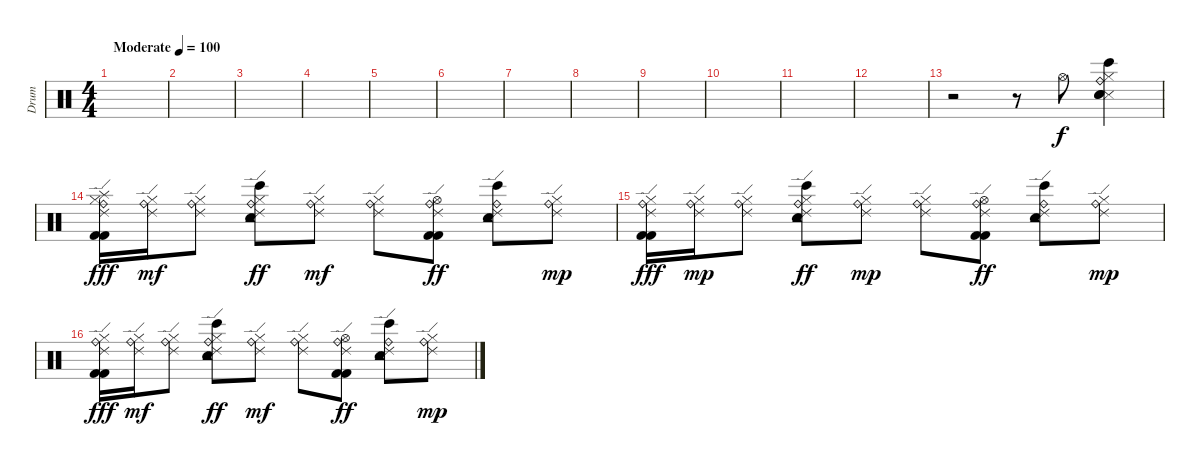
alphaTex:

\track ("Drum" "Drum") {instrument percussion}
\staff {score}
\articulation defaults
\ts (4 4)
\tempo (100 "Moderate")
\clef neutral
\ks c
|
|
|
|
|
|
|
|
|
|
|
|
r.2{volume 11} r.8 "Hi-Hat (open)".8 ("Ride (bell)" "Snare (side stick) 3" "Bongo High (hit)" "Electric Snare (hit)" "Hi-Hat (closed)" "Snare (hit) 2").4 |
("Splash (hit)" "Ride (bell)" "Ride (edge) 2" "Hi-Hat (closed)" "Kick (hit) 2" "Kick (hit) 2").16{dy fff} ("Ride (bell)" "Ride (edge) 2" "Hi-Hat (closed)").16{dy mf} ("Ride (bell)" "Ride (edge) 2" "Hi-Hat (closed)").8 ("Snare (hit) 2" "Ride (bell)" "Ride (edge) 2" "Hi-Hat (closed)" "Bongo High (hit)" "Tambourine (hit)").8{dy ff} ("Ride (bell)" "Ride (edge) 2" "Hi-Hat (closed)").8{dy mf} ("Ride (bell)" "Ride (edge) 2" "Hi-Hat (closed)").8 ("Ride (bell)" "Ride (edge) 2" "Hi-Hat (open)" "Kick (hit) 2" "Kick (hit) 2").8{dy ff} ("Snare (hit) 2" "Ride (bell)" "Ride (edge) 2" "Bongo High (hit)" "Tambourine (hit)").8 ("Ride (bell)" "Ride (edge) 2" "Hi-Hat (closed)").8{dy mp} |
("Ride (bell)" "Ride (edge) 2" "Hi-Hat (closed)" "Kick (hit) 2" "Kick (hit) 2").16{dy fff} ("Ride (bell)" "Ride (edge) 2" "Hi-Hat (closed)").16{dy mp} ("Ride (bell)" "Ride (edge) 2" "Hi-Hat (closed)").8 ("Snare (hit) 2" "Ride (bell)" "Ride (edge) 2" "Hi-Hat (closed)" "Bongo High (hit)" "Tambourine (hit)").8{dy ff} ("Ride (bell)" "Ride (edge) 2" "Hi-Hat (closed)").8{dy mp} ("Ride (bell)" "Ride (edge) 2" "Hi-Hat (closed)").8 ("Ride (bell)" "Ride (edge) 2" "Hi-Hat (open)" "Kick (hit) 2" "Kick (hit) 2").8{dy ff} ("Snare (hit) 2" "Ride (bell)" "Ride (edge) 2" "Bongo High (hit)" "Tambourine (hit)").8 ("Ride (bell)" "Ride (edge) 2" "Hi-Hat (closed)").8{dy mp} |
("Ride (bell)" "Ride (edge) 2" "Hi-Hat (closed)" "Kick (hit) 2" "Kick (hit) 2").16{dy fff} ("Ride (bell)" "Ride (edge) 2" "Hi-Hat (closed)").16{dy mf} ("Ride (bell)" "Ride (edge) 2" "Hi-Hat (closed)").8 ("Snare (hit) 2" "Ride (bell)" "Ride (edge) 2" "Hi-Hat (closed)" "Bongo High (hit)" "Tambourine (hit)").8{dy ff} ("Ride (bell)" "Ride (edge) 2" "Hi-Hat (closed)").8{dy mf} ("Ride (bell)" "Ride (edge) 2" "Hi-Hat (closed)").8 ("Ride (bell)" "Ride (edge) 2" "Hi-Hat (open)" "Kick (hit) 2" "Kick (hit) 2").8{dy ff} ("Snare (hit) 2" "Ride (bell)" "Ride (edge) 2" "Bongo High (hit)" "Tambourine (hit)").8 ("Ride (bell)" "Ride (edge) 2" "Hi-Hat (closed)").8{dy mp}
